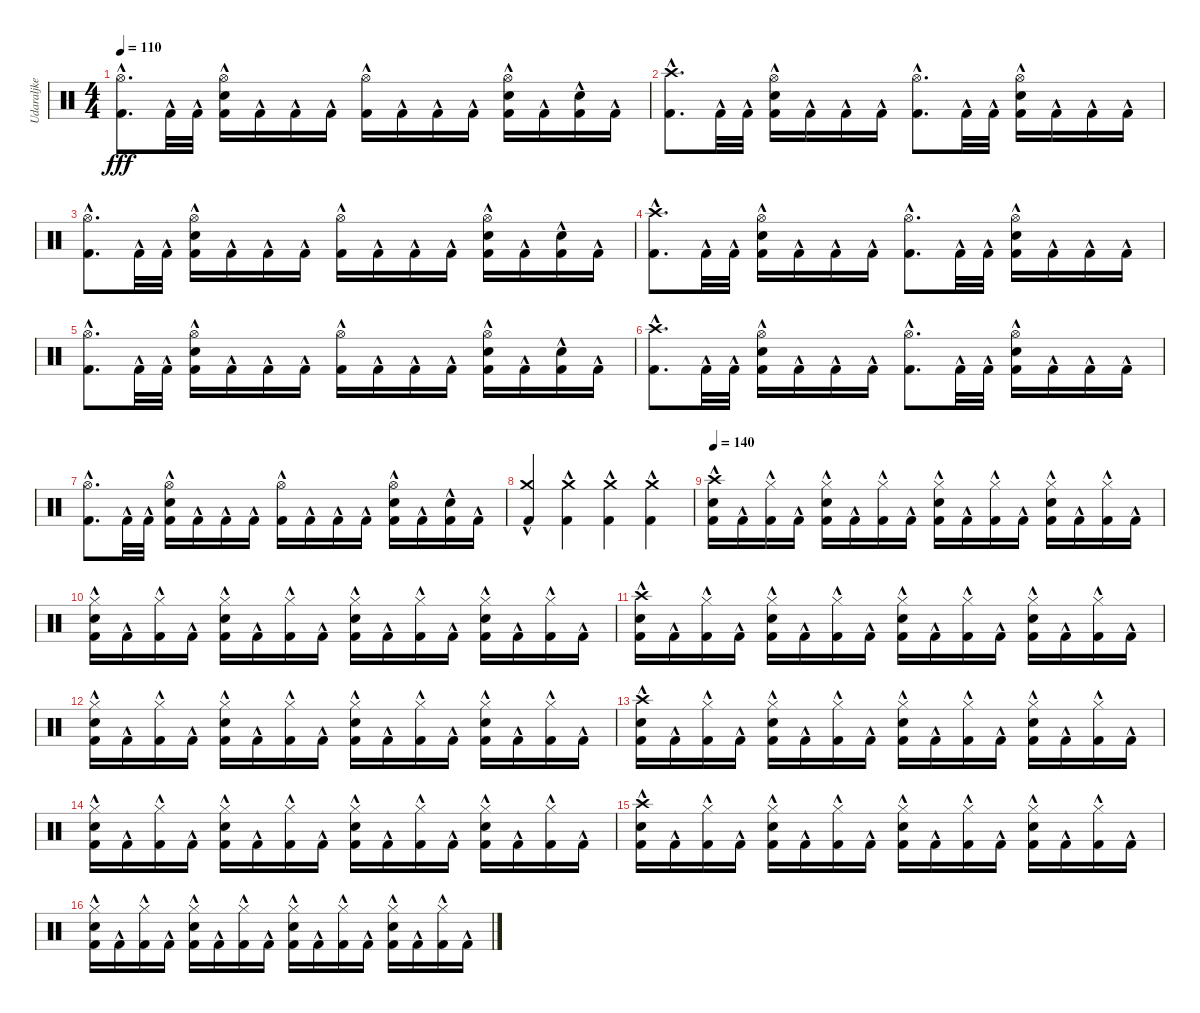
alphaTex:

\track ("Udaraljke" "Udaraljke") {instrument percussion}
\staff {score}
\articulation defaults
\ts (4 4)
\tempo 110
\clef neutral
\ks c
("Hi-Hat (open)" "Kick (hit) 2"{hac}).8{d dy fff} "Kick (hit) 2"{hac}.32 "Kick (hit) 2"{hac}.32 ("Hi-Hat (open)" "Snare (hit) 2"{hac} "Kick (hit) 2"{hac}).16 "Kick (hit) 2"{hac}.16 "Kick (hit) 2"{hac}.16 "Kick (hit) 2"{hac}.16 ("Hi-Hat (open)" "Kick (hit) 2"{hac}).16 "Kick (hit) 2"{hac}.16 "Kick (hit) 2"{hac}.16 "Kick (hit) 2"{hac}.16 ("Hi-Hat (open)" "Snare (hit) 2"{hac} "Kick (hit) 2"{hac}).16 "Kick (hit) 2"{hac}.16 ("Snare (hit) 2"{hac} "Kick (hit) 2"{hac}).16 "Kick (hit) 2"{hac}.16 |
("Crash high (hit)" "Kick (hit) 2"{hac}).8{d} "Kick (hit) 2"{hac}.32 "Kick (hit) 2"{hac}.32 ("Hi-Hat (open)" "Snare (hit) 2"{hac} "Kick (hit) 2"{hac}).16 "Kick (hit) 2"{hac}.16 "Kick (hit) 2"{hac}.16 "Kick (hit) 2"{hac}.16 ("Hi-Hat (open)" "Kick (hit) 2"{hac}).8{d} "Kick (hit) 2"{hac}.32 "Kick (hit) 2"{hac}.32 ("Hi-Hat (open)" "Snare (hit) 2"{hac} "Kick (hit) 2"{hac}).16 "Kick (hit) 2"{hac}.16 "Kick (hit) 2"{hac}.16 "Kick (hit) 2"{hac}.16 |
("Hi-Hat (open)" "Kick (hit) 2"{hac}).8{d} "Kick (hit) 2"{hac}.32 "Kick (hit) 2"{hac}.32 ("Hi-Hat (open)" "Snare (hit) 2"{hac} "Kick (hit) 2"{hac}).16 "Kick (hit) 2"{hac}.16 "Kick (hit) 2"{hac}.16 "Kick (hit) 2"{hac}.16 ("Hi-Hat (open)" "Kick (hit) 2"{hac}).16 "Kick (hit) 2"{hac}.16 "Kick (hit) 2"{hac}.16 "Kick (hit) 2"{hac}.16 ("Hi-Hat (open)" "Snare (hit) 2"{hac} "Kick (hit) 2"{hac}).16 "Kick (hit) 2"{hac}.16 ("Snare (hit) 2"{hac} "Kick (hit) 2"{hac}).16 "Kick (hit) 2"{hac}.16 |
("Crash high (hit)" "Kick (hit) 2"{hac}).8{d} "Kick (hit) 2"{hac}.32 "Kick (hit) 2"{hac}.32 ("Hi-Hat (open)" "Snare (hit) 2"{hac} "Kick (hit) 2"{hac}).16 "Kick (hit) 2"{hac}.16 "Kick (hit) 2"{hac}.16 "Kick (hit) 2"{hac}.16 ("Hi-Hat (open)" "Kick (hit) 2"{hac}).8{d} "Kick (hit) 2"{hac}.32 "Kick (hit) 2"{hac}.32 ("Hi-Hat (open)" "Snare (hit) 2"{hac} "Kick (hit) 2"{hac}).16 "Kick (hit) 2"{hac}.16 "Kick (hit) 2"{hac}.16 "Kick (hit) 2"{hac}.16 |
("Hi-Hat (open)" "Kick (hit) 2"{hac}).8{d} "Kick (hit) 2"{hac}.32 "Kick (hit) 2"{hac}.32 ("Hi-Hat (open)" "Snare (hit) 2"{hac} "Kick (hit) 2"{hac}).16 "Kick (hit) 2"{hac}.16 "Kick (hit) 2"{hac}.16 "Kick (hit) 2"{hac}.16 ("Hi-Hat (open)" "Kick (hit) 2"{hac}).16 "Kick (hit) 2"{hac}.16 "Kick (hit) 2"{hac}.16 "Kick (hit) 2"{hac}.16 ("Hi-Hat (open)" "Snare (hit) 2"{hac} "Kick (hit) 2"{hac}).16 "Kick (hit) 2"{hac}.16 ("Snare (hit) 2"{hac} "Kick (hit) 2"{hac}).16 "Kick (hit) 2"{hac}.16 |
("Crash high (hit)" "Kick (hit) 2"{hac}).8{d} "Kick (hit) 2"{hac}.32 "Kick (hit) 2"{hac}.32 ("Hi-Hat (open)" "Snare (hit) 2"{hac} "Kick (hit) 2"{hac}).16 "Kick (hit) 2"{hac}.16 "Kick (hit) 2"{hac}.16 "Kick (hit) 2"{hac}.16 ("Hi-Hat (open)" "Kick (hit) 2"{hac}).8{d} "Kick (hit) 2"{hac}.32 "Kick (hit) 2"{hac}.32 ("Hi-Hat (open)" "Snare (hit) 2"{hac} "Kick (hit) 2"{hac}).16 "Kick (hit) 2"{hac}.16 "Kick (hit) 2"{hac}.16 "Kick (hit) 2"{hac}.16 |
("Hi-Hat (open)" "Kick (hit) 2"{hac}).8{d} "Kick (hit) 2"{hac}.32 "Kick (hit) 2"{hac}.32 ("Hi-Hat (open)" "Snare (hit) 2"{hac} "Kick (hit) 2"{hac}).16 "Kick (hit) 2"{hac}.16 "Kick (hit) 2"{hac}.16 "Kick (hit) 2"{hac}.16 ("Hi-Hat (open)" "Kick (hit) 2"{hac}).16 "Kick (hit) 2"{hac}.16 "Kick (hit) 2"{hac}.16 "Kick (hit) 2"{hac}.16 ("Hi-Hat (open)" "Snare (hit) 2"{hac} "Kick (hit) 2"{hac}).16 "Kick (hit) 2"{hac}.16 ("Snare (hit) 2"{hac} "Kick (hit) 2"{hac}).16 "Kick (hit) 2"{hac}.16 |
("Crash medium (hit)" "Kick (hit) 2"{hac}).4{beam Up} ("Crash medium (hit)" "Kick (hit) 2"{hac}).4 ("Crash medium (hit)" "Kick (hit) 2"{hac}).4 ("Crash medium (hit)" "Kick (hit) 2"{hac}).4 |
\tempo 140
("Crash high (hit)" "Snare (hit) 2"{hac} "Kick (hit) 2"{hac}).16 "Kick (hit) 2"{hac}.16 ("Hi-Hat (closed)" "Kick (hit) 2"{hac}).16 "Kick (hit) 2"{hac}.16 ("Hi-Hat (closed)" "Snare (hit) 2"{hac} "Kick (hit) 2"{hac}).16 "Kick (hit) 2"{hac}.16 ("Hi-Hat (closed)" "Kick (hit) 2"{hac}).16 "Kick (hit) 2"{hac}.16 ("Hi-Hat (closed)" "Snare (hit) 2"{hac} "Kick (hit) 2"{hac}).16 "Kick (hit) 2"{hac}.16 ("Hi-Hat (closed)" "Kick (hit) 2"{hac}).16 "Kick (hit) 2"{hac}.16 ("Hi-Hat (closed)" "Snare (hit) 2"{hac} "Kick (hit) 2"{hac}).16 "Kick (hit) 2"{hac}.16 ("Hi-Hat (closed)" "Kick (hit) 2"{hac}).16 "Kick (hit) 2"{hac}.16 |
("Hi-Hat (closed)" "Snare (hit) 2"{hac} "Kick (hit) 2"{hac}).16 "Kick (hit) 2"{hac}.16 ("Hi-Hat (closed)" "Kick (hit) 2"{hac}).16 "Kick (hit) 2"{hac}.16 ("Hi-Hat (closed)" "Snare (hit) 2"{hac} "Kick (hit) 2"{hac}).16 "Kick (hit) 2"{hac}.16 ("Hi-Hat (closed)" "Kick (hit) 2"{hac}).16 "Kick (hit) 2"{hac}.16 ("Hi-Hat (closed)" "Snare (hit) 2"{hac} "Kick (hit) 2"{hac}).16 "Kick (hit) 2"{hac}.16 ("Hi-Hat (closed)" "Kick (hit) 2"{hac}).16 "Kick (hit) 2"{hac}.16 ("Hi-Hat (closed)" "Snare (hit) 2"{hac} "Kick (hit) 2"{hac}).16 "Kick (hit) 2"{hac}.16 ("Hi-Hat (closed)" "Kick (hit) 2"{hac}).16 "Kick (hit) 2"{hac}.16 |
("Crash high (hit)" "Snare (hit) 2"{hac} "Kick (hit) 2"{hac}).16 "Kick (hit) 2"{hac}.16 ("Hi-Hat (closed)" "Kick (hit) 2"{hac}).16 "Kick (hit) 2"{hac}.16 ("Hi-Hat (closed)" "Snare (hit) 2"{hac} "Kick (hit) 2"{hac}).16 "Kick (hit) 2"{hac}.16 ("Hi-Hat (closed)" "Kick (hit) 2"{hac}).16 "Kick (hit) 2"{hac}.16 ("Hi-Hat (closed)" "Snare (hit) 2"{hac} "Kick (hit) 2"{hac}).16 "Kick (hit) 2"{hac}.16 ("Hi-Hat (closed)" "Kick (hit) 2"{hac}).16 "Kick (hit) 2"{hac}.16 ("Hi-Hat (closed)" "Snare (hit) 2"{hac} "Kick (hit) 2"{hac}).16 "Kick (hit) 2"{hac}.16 ("Hi-Hat (closed)" "Kick (hit) 2"{hac}).16 "Kick (hit) 2"{hac}.16 |
("Hi-Hat (closed)" "Snare (hit) 2"{hac} "Kick (hit) 2"{hac}).16 "Kick (hit) 2"{hac}.16 ("Hi-Hat (closed)" "Kick (hit) 2"{hac}).16 "Kick (hit) 2"{hac}.16 ("Hi-Hat (closed)" "Snare (hit) 2"{hac} "Kick (hit) 2"{hac}).16 "Kick (hit) 2"{hac}.16 ("Hi-Hat (closed)" "Kick (hit) 2"{hac}).16 "Kick (hit) 2"{hac}.16 ("Hi-Hat (closed)" "Snare (hit) 2"{hac} "Kick (hit) 2"{hac}).16 "Kick (hit) 2"{hac}.16 ("Hi-Hat (closed)" "Kick (hit) 2"{hac}).16 "Kick (hit) 2"{hac}.16 ("Hi-Hat (closed)" "Snare (hit) 2"{hac} "Kick (hit) 2"{hac}).16 "Kick (hit) 2"{hac}.16 ("Hi-Hat (closed)" "Kick (hit) 2"{hac}).16 "Kick (hit) 2"{hac}.16 |
("Crash high (hit)" "Snare (hit) 2"{hac} "Kick (hit) 2"{hac}).16 "Kick (hit) 2"{hac}.16 ("Hi-Hat (closed)" "Kick (hit) 2"{hac}).16 "Kick (hit) 2"{hac}.16 ("Hi-Hat (closed)" "Snare (hit) 2"{hac} "Kick (hit) 2"{hac}).16 "Kick (hit) 2"{hac}.16 ("Hi-Hat (closed)" "Kick (hit) 2"{hac}).16 "Kick (hit) 2"{hac}.16 ("Hi-Hat (closed)" "Snare (hit) 2"{hac} "Kick (hit) 2"{hac}).16 "Kick (hit) 2"{hac}.16 ("Hi-Hat (closed)" "Kick (hit) 2"{hac}).16 "Kick (hit) 2"{hac}.16 ("Hi-Hat (closed)" "Snare (hit) 2"{hac} "Kick (hit) 2"{hac}).16 "Kick (hit) 2"{hac}.16 ("Hi-Hat (closed)" "Kick (hit) 2"{hac}).16 "Kick (hit) 2"{hac}.16 |
("Hi-Hat (closed)" "Snare (hit) 2"{hac} "Kick (hit) 2"{hac}).16 "Kick (hit) 2"{hac}.16 ("Hi-Hat (closed)" "Kick (hit) 2"{hac}).16 "Kick (hit) 2"{hac}.16 ("Hi-Hat (closed)" "Snare (hit) 2"{hac} "Kick (hit) 2"{hac}).16 "Kick (hit) 2"{hac}.16 ("Hi-Hat (closed)" "Kick (hit) 2"{hac}).16 "Kick (hit) 2"{hac}.16 ("Hi-Hat (closed)" "Snare (hit) 2"{hac} "Kick (hit) 2"{hac}).16 "Kick (hit) 2"{hac}.16 ("Hi-Hat (closed)" "Kick (hit) 2"{hac}).16 "Kick (hit) 2"{hac}.16 ("Hi-Hat (closed)" "Snare (hit) 2"{hac} "Kick (hit) 2"{hac}).16 "Kick (hit) 2"{hac}.16 ("Hi-Hat (closed)" "Kick (hit) 2"{hac}).16 "Kick (hit) 2"{hac}.16 |
("Crash high (hit)" "Snare (hit) 2"{hac} "Kick (hit) 2"{hac}).16 "Kick (hit) 2"{hac}.16 ("Hi-Hat (closed)" "Kick (hit) 2"{hac}).16 "Kick (hit) 2"{hac}.16 ("Hi-Hat (closed)" "Snare (hit) 2"{hac} "Kick (hit) 2"{hac}).16 "Kick (hit) 2"{hac}.16 ("Hi-Hat (closed)" "Kick (hit) 2"{hac}).16 "Kick (hit) 2"{hac}.16 ("Hi-Hat (closed)" "Snare (hit) 2"{hac} "Kick (hit) 2"{hac}).16 "Kick (hit) 2"{hac}.16 ("Hi-Hat (closed)" "Kick (hit) 2"{hac}).16 "Kick (hit) 2"{hac}.16 ("Hi-Hat (closed)" "Snare (hit) 2"{hac} "Kick (hit) 2"{hac}).16 "Kick (hit) 2"{hac}.16 ("Hi-Hat (closed)" "Kick (hit) 2"{hac}).16 "Kick (hit) 2"{hac}.16 |
("Hi-Hat (closed)" "Snare (hit) 2"{hac} "Kick (hit) 2"{hac}).16 "Kick (hit) 2"{hac}.16 ("Hi-Hat (closed)" "Kick (hit) 2"{hac}).16 "Kick (hit) 2"{hac}.16 ("Hi-Hat (closed)" "Snare (hit) 2"{hac} "Kick (hit) 2"{hac}).16 "Kick (hit) 2"{hac}.16 ("Hi-Hat (closed)" "Kick (hit) 2"{hac}).16 "Kick (hit) 2"{hac}.16 ("Hi-Hat (closed)" "Snare (hit) 2"{hac} "Kick (hit) 2"{hac}).16 "Kick (hit) 2"{hac}.16 ("Hi-Hat (closed)" "Kick (hit) 2"{hac}).16 "Kick (hit) 2"{hac}.16 ("Hi-Hat (closed)" "Snare (hit) 2"{hac} "Kick (hit) 2"{hac}).16 "Kick (hit) 2"{hac}.16 ("Hi-Hat (closed)" "Kick (hit) 2"{hac}).16 "Kick (hit) 2"{hac}.16
